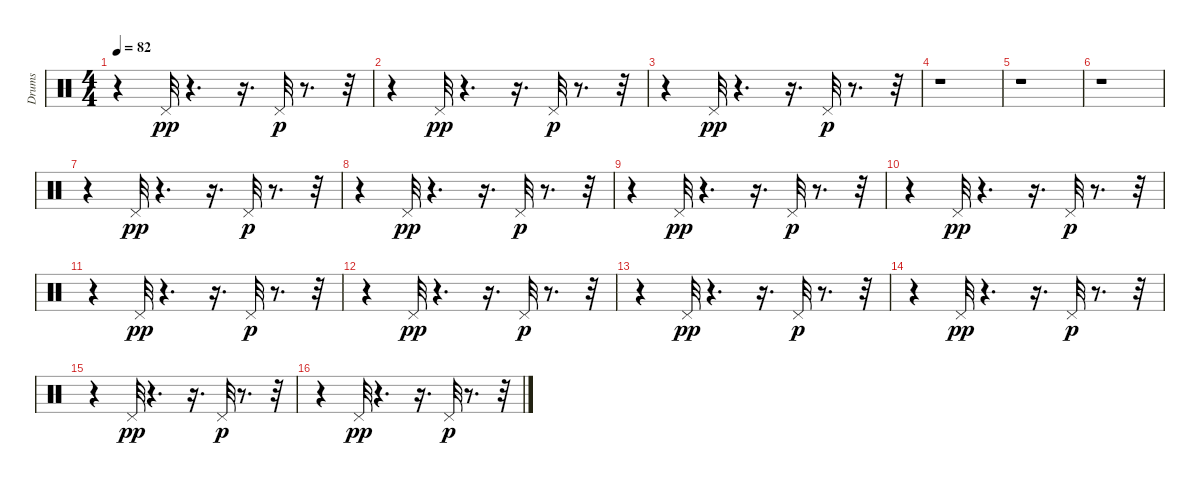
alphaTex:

\track ("Drums" "Drums") {instrument percussion}
\staff {score}
\articulation defaults
\ts (4 4)
\tempo 82
\clef neutral
\ks c
r.4{dy p} "Pedal Hi-Hat (hit)".32{dy pp} r.4{d} r.16{d} "Pedal Hi-Hat (hit)".32{dy p} r.8{d} r.32 |
r.4 "Pedal Hi-Hat (hit)".32{dy pp} r.4{d} r.16{d} "Pedal Hi-Hat (hit)".32{dy p} r.8{d} r.32 |
r.4 "Pedal Hi-Hat (hit)".32{dy pp} r.4{d} r.16{d} "Pedal Hi-Hat (hit)".32{dy p} r.8{d} r.32 |
r.1 |
r.1 |
r.1 |
r.4 "Pedal Hi-Hat (hit)".32{dy pp} r.4{d} r.16{d} "Pedal Hi-Hat (hit)".32{dy p} r.8{d} r.32 |
r.4 "Pedal Hi-Hat (hit)".32{dy pp} r.4{d} r.16{d} "Pedal Hi-Hat (hit)".32{dy p} r.8{d} r.32 |
r.4 "Pedal Hi-Hat (hit)".32{dy pp} r.4{d} r.16{d} "Pedal Hi-Hat (hit)".32{dy p} r.8{d} r.32 |
r.4 "Pedal Hi-Hat (hit)".32{dy pp} r.4{d} r.16{d} "Pedal Hi-Hat (hit)".32{dy p} r.8{d} r.32 |
r.4 "Pedal Hi-Hat (hit)".32{dy pp} r.4{d} r.16{d} "Pedal Hi-Hat (hit)".32{dy p} r.8{d} r.32 |
r.4 "Pedal Hi-Hat (hit)".32{dy pp} r.4{d} r.16{d} "Pedal Hi-Hat (hit)".32{dy p} r.8{d} r.32 |
r.4 "Pedal Hi-Hat (hit)".32{dy pp} r.4{d} r.16{d} "Pedal Hi-Hat (hit)".32{dy p} r.8{d} r.32 |
r.4 "Pedal Hi-Hat (hit)".32{dy pp} r.4{d} r.16{d} "Pedal Hi-Hat (hit)".32{dy p} r.8{d} r.32 |
r.4 "Pedal Hi-Hat (hit)".32{dy pp} r.4{d} r.16{d} "Pedal Hi-Hat (hit)".32{dy p} r.8{d} r.32 |
r.4 "Pedal Hi-Hat (hit)".32{dy pp} r.4{d} r.16{d} "Pedal Hi-Hat (hit)".32{dy p} r.8{d} r.32
